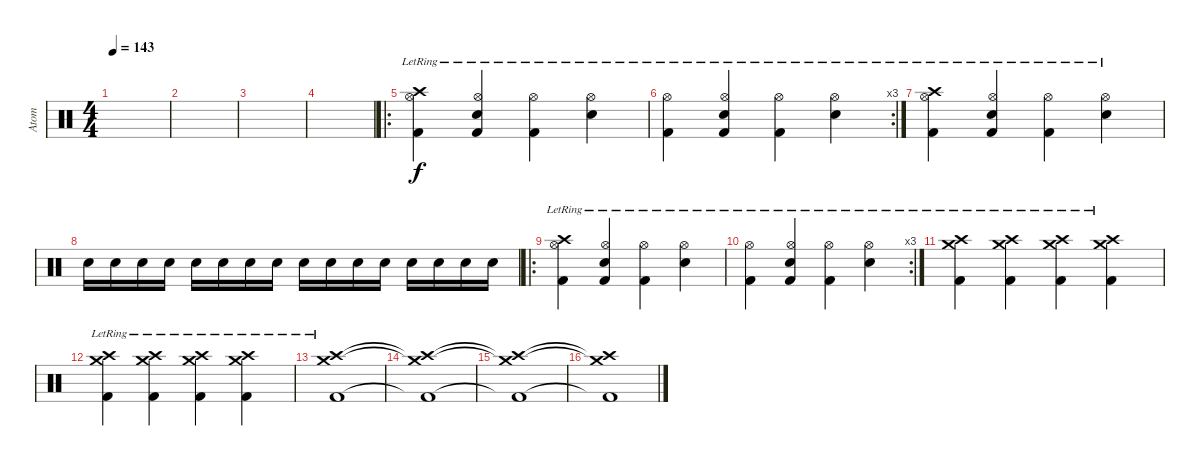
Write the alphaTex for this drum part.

\track ("Atom" "Atom") {instrument percussion}
\staff {score}
\articulation defaults
\ts (4 4)
\tempo 143
\clef neutral
\ks c
|
|
|
|
\ro
("Kick (hit) 2" "Hi-Hat (open)"{lr} "Crash high (hit)").4 ("Kick (hit) 2" "Hi-Hat (open)"{lr} "Snare (hit) 2").4 ("Kick (hit) 2" "Hi-Hat (open)"{lr}).4 ("Hi-Hat (open)"{lr} "Snare (hit) 2").4 |
\rc 3
("Kick (hit) 2" "Hi-Hat (open)"{lr}).4 ("Kick (hit) 2" "Hi-Hat (open)"{lr} "Snare (hit) 2").4 ("Kick (hit) 2" "Hi-Hat (open)"{lr}).4 ("Hi-Hat (open)"{lr} "Snare (hit) 2").4 |
("Kick (hit) 2" "Hi-Hat (open)"{lr} "Crash high (hit)").4 ("Kick (hit) 2" "Hi-Hat (open)"{lr} "Snare (hit) 2").4 ("Kick (hit) 2" "Hi-Hat (open)"{lr}).4 ("Hi-Hat (open)"{lr} "Snare (hit) 2").4 |
"Snare (hit) 2".16 "Snare (hit) 2".16 "Snare (hit) 2".16 "Snare (hit) 2".16 "Snare (hit) 2".16 "Snare (hit) 2".16 "Snare (hit) 2".16 "Snare (hit) 2".16 "Snare (hit) 2".16 "Snare (hit) 2".16 "Snare (hit) 2".16 "Snare (hit) 2".16 "Snare (hit) 2".16 "Snare (hit) 2".16 "Snare (hit) 2".16 "Snare (hit) 2".16 |
\ro
("Kick (hit) 2" "Hi-Hat (open)"{lr} "Crash high (hit)").4 ("Kick (hit) 2" "Hi-Hat (open)"{lr} "Snare (hit) 2").4 ("Kick (hit) 2" "Hi-Hat (open)"{lr}).4 ("Hi-Hat (open)"{lr} "Snare (hit) 2").4 |
\rc 3
("Kick (hit) 2" "Hi-Hat (open)"{lr}).4 ("Kick (hit) 2" "Hi-Hat (open)"{lr} "Snare (hit) 2").4 ("Kick (hit) 2" "Hi-Hat (open)"{lr}).4 ("Hi-Hat (open)"{lr} "Snare (hit) 2").4 |
("Kick (hit) 2" "Crash medium (hit)"{lr} "Crash high (hit)"{lr}).4 ("Kick (hit) 2" "Crash medium (hit)"{lr} "Crash high (hit)"{lr}).4 ("Kick (hit) 2" "Crash medium (hit)"{lr} "Crash high (hit)"{lr}).4 ("Kick (hit) 2" "Crash medium (hit)"{lr} "Crash high (hit)"{lr}).4 |
("Kick (hit) 2" "Crash medium (hit)"{lr} "Crash high (hit)"{lr}).4 ("Kick (hit) 2" "Crash medium (hit)"{lr} "Crash high (hit)"{lr}).4 ("Kick (hit) 2" "Crash medium (hit)"{lr} "Crash high (hit)"{lr}).4 ("Kick (hit) 2" "Crash medium (hit)"{lr} "Crash high (hit)"{lr}).4 |
("Kick (hit) 2" "Crash medium (hit)"{lr} "Crash high (hit)"{lr}).1 |
("Kick (hit) 2"{t} "Crash medium (hit)"{t} "Crash high (hit)"{t}).1 |
("Kick (hit) 2"{t} "Crash medium (hit)"{t} "Crash high (hit)"{t}).1 |
("Kick (hit) 2"{t} "Crash medium (hit)"{t} "Crash high (hit)"{t}).1
